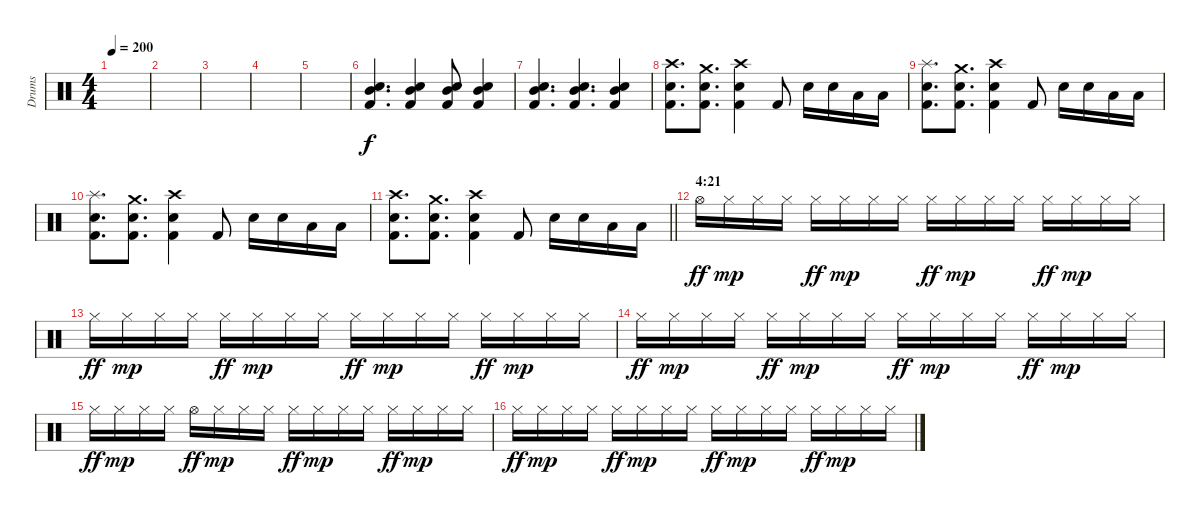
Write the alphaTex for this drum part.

\track ("Drums" "Drums") {instrument percussion}
\staff {score}
\articulation defaults
\ts (4 4)
\tempo 200
\clef neutral
\ks c
|
|
|
|
|
("Mid Tom (hit)" "Snare (hit) 2" "Kick (hit) 2").4{d} ("Mid Tom (hit)" "Snare (hit) 2" "Kick (hit) 2").4 ("Mid Tom (hit)" "Snare (hit) 2" "Kick (hit) 2").8 ("Mid Tom (hit)" "Snare (hit) 2" "Kick (hit) 2").4 |
("Mid Tom (hit)" "Snare (hit) 2" "Kick (hit) 2").4{d} ("Mid Tom (hit)" "Snare (hit) 2" "Kick (hit) 2").4{d} ("Mid Tom (hit)" "Snare (hit) 2" "Kick (hit) 2").4 |
("Crash high (hit)" "Snare (hit) 2" "Kick (hit) 2").8{d} ("Crash medium (hit)" "Snare (hit) 2" "Kick (hit) 2").8{d} ("Crash high (hit)" "Snare (hit) 2" "Kick (hit) 2").4 "Kick (hit) 2".8 "Snare (hit) 2".16 "Snare (hit) 2".16 "Low Tom (hit)".16 "Low Tom (hit)".16 |
("Splash (hit)" "Snare (hit) 2" "Kick (hit) 2").8{d} ("Crash medium (hit)" "Snare (hit) 2" "Kick (hit) 2").8{d} ("Crash high (hit)" "Snare (hit) 2" "Kick (hit) 2").4 "Kick (hit) 2".8 "Snare (hit) 2".16 "Snare (hit) 2".16 "Low Tom (hit)".16 "Low Tom (hit)".16 |
("Splash (hit)" "Snare (hit) 2" "Kick (hit) 2").8{d} ("Crash medium (hit)" "Snare (hit) 2" "Kick (hit) 2").8{d} ("Crash high (hit)" "Snare (hit) 2" "Kick (hit) 2").4 "Kick (hit) 2".8 "Snare (hit) 2".16 "Snare (hit) 2".16 "Low Tom (hit)".16 "Low Tom (hit)".16 |
\barLineRight lightlight
("Crash high (hit)" "Snare (hit) 2" "Kick (hit) 2").8{d} ("Crash medium (hit)" "Snare (hit) 2" "Kick (hit) 2").8{d} ("Crash high (hit)" "Snare (hit) 2" "Kick (hit) 2").4 "Kick (hit) 2".8 "Snare (hit) 2".16 "Snare (hit) 2".16 "Low Tom (hit)".16 "Low Tom (hit)".16 |
\section ("" "4:21")
"Hi-Hat (open)".16{dy ff} "Hi-Hat (closed)".16{dy mp} "Hi-Hat (closed)".16 "Hi-Hat (closed)".16 "Hi-Hat (closed)".16{dy ff} "Hi-Hat (closed)".16{dy mp} "Hi-Hat (closed)".16 "Hi-Hat (closed)".16 "Hi-Hat (closed)".16{dy ff} "Hi-Hat (closed)".16{dy mp} "Hi-Hat (closed)".16 "Hi-Hat (closed)".16 "Hi-Hat (closed)".16{dy ff} "Hi-Hat (closed)".16{dy mp} "Hi-Hat (closed)".16 "Hi-Hat (closed)".16 |
"Hi-Hat (closed)".16{dy ff} "Hi-Hat (closed)".16{dy mp} "Hi-Hat (closed)".16 "Hi-Hat (closed)".16 "Hi-Hat (closed)".16{dy ff} "Hi-Hat (closed)".16{dy mp} "Hi-Hat (closed)".16 "Hi-Hat (closed)".16 "Hi-Hat (closed)".16{dy ff} "Hi-Hat (closed)".16{dy mp} "Hi-Hat (closed)".16 "Hi-Hat (closed)".16 "Hi-Hat (closed)".16{dy ff} "Hi-Hat (closed)".16{dy mp} "Hi-Hat (closed)".16 "Hi-Hat (closed)".16 |
"Hi-Hat (closed)".16{dy ff} "Hi-Hat (closed)".16{dy mp} "Hi-Hat (closed)".16 "Hi-Hat (closed)".16 "Hi-Hat (closed)".16{dy ff} "Hi-Hat (closed)".16{dy mp} "Hi-Hat (closed)".16 "Hi-Hat (closed)".16 "Hi-Hat (closed)".16{dy ff} "Hi-Hat (closed)".16{dy mp} "Hi-Hat (closed)".16 "Hi-Hat (closed)".16 "Hi-Hat (closed)".16{dy ff} "Hi-Hat (closed)".16{dy mp} "Hi-Hat (closed)".16 "Hi-Hat (closed)".16 |
"Hi-Hat (closed)".16{dy ff} "Hi-Hat (closed)".16{dy mp} "Hi-Hat (closed)".16 "Hi-Hat (closed)".16 "Hi-Hat (open)".16{dy ff} "Hi-Hat (closed)".16{dy mp} "Hi-Hat (closed)".16 "Hi-Hat (closed)".16 "Hi-Hat (closed)".16{dy ff} "Hi-Hat (closed)".16{dy mp} "Hi-Hat (closed)".16 "Hi-Hat (closed)".16 "Hi-Hat (closed)".16{dy ff} "Hi-Hat (closed)".16{dy mp} "Hi-Hat (closed)".16 "Hi-Hat (closed)".16 |
"Hi-Hat (closed)".16{dy ff} "Hi-Hat (closed)".16{dy mp} "Hi-Hat (closed)".16 "Hi-Hat (closed)".16 "Hi-Hat (closed)".16{dy ff} "Hi-Hat (closed)".16{dy mp} "Hi-Hat (closed)".16 "Hi-Hat (closed)".16 "Hi-Hat (closed)".16{dy ff} "Hi-Hat (closed)".16{dy mp} "Hi-Hat (closed)".16 "Hi-Hat (closed)".16 "Hi-Hat (closed)".16{dy ff} "Hi-Hat (closed)".16{dy mp} "Hi-Hat (closed)".16 "Hi-Hat (closed)".16
